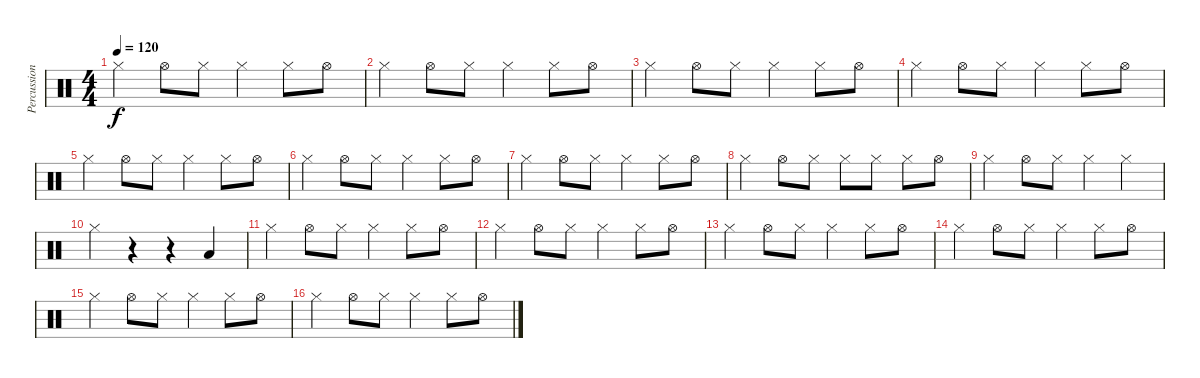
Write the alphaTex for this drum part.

\track ("Percussion" "Percussion") {instrument percussion}
\staff {score}
\articulation defaults
\ts (4 4)
\tempo 120
\clef neutral
\ks aminor "Hi-Hat (closed)".4{dy f} "Hi-Hat (open)".8 "Hi-Hat (closed)".8 "Hi-Hat (closed)".4 "Hi-Hat (closed)".8 "Hi-Hat (open)".8
|
"Hi-Hat (closed)".4 "Hi-Hat (open)".8 "Hi-Hat (closed)".8 "Hi-Hat (closed)".4 "Hi-Hat (closed)".8 "Hi-Hat (open)".8 |
"Hi-Hat (closed)".4 "Hi-Hat (open)".8 "Hi-Hat (closed)".8 "Hi-Hat (closed)".4 "Hi-Hat (closed)".8 "Hi-Hat (open)".8 |
"Hi-Hat (closed)".4 "Hi-Hat (open)".8 "Hi-Hat (closed)".8 "Hi-Hat (closed)".4 "Hi-Hat (closed)".8 "Hi-Hat (open)".8 |
"Hi-Hat (closed)".4 "Hi-Hat (open)".8 "Hi-Hat (closed)".8 "Hi-Hat (closed)".4 "Hi-Hat (closed)".8 "Hi-Hat (open)".8 |
"Hi-Hat (closed)".4 "Hi-Hat (open)".8 "Hi-Hat (closed)".8 "Hi-Hat (closed)".4 "Hi-Hat (closed)".8 "Hi-Hat (open)".8 |
"Hi-Hat (closed)".4 "Hi-Hat (open)".8 "Hi-Hat (closed)".8 "Hi-Hat (closed)".4 "Hi-Hat (closed)".8 "Hi-Hat (open)".8 |
"Hi-Hat (closed)".4 "Hi-Hat (open)".8 "Hi-Hat (closed)".8 "Hi-Hat (closed)".8 "Hi-Hat (closed)".8 "Hi-Hat (closed)".8 "Hi-Hat (open)".8 |
"Hi-Hat (closed)".4 "Hi-Hat (open)".8 "Hi-Hat (closed)".8 "Hi-Hat (closed)".4 "Hi-Hat (closed)".4 |
"Hi-Hat (closed)".4 r.4 r.4 "Low Floor Tom (hit)".4 |
"Hi-Hat (closed)".4 "Hi-Hat (open)".8 "Hi-Hat (closed)".8 "Hi-Hat (closed)".4 "Hi-Hat (closed)".8 "Hi-Hat (open)".8 |
"Hi-Hat (closed)".4 "Hi-Hat (open)".8 "Hi-Hat (closed)".8 "Hi-Hat (closed)".4 "Hi-Hat (closed)".8 "Hi-Hat (open)".8 |
"Hi-Hat (closed)".4 "Hi-Hat (open)".8 "Hi-Hat (closed)".8 "Hi-Hat (closed)".4 "Hi-Hat (closed)".8 "Hi-Hat (open)".8 |
"Hi-Hat (closed)".4 "Hi-Hat (open)".8 "Hi-Hat (closed)".8 "Hi-Hat (closed)".4 "Hi-Hat (closed)".8 "Hi-Hat (open)".8 |
"Hi-Hat (closed)".4 "Hi-Hat (open)".8 "Hi-Hat (closed)".8 "Hi-Hat (closed)".4 "Hi-Hat (closed)".8 "Hi-Hat (open)".8 |
"Hi-Hat (closed)".4 "Hi-Hat (open)".8 "Hi-Hat (closed)".8 "Hi-Hat (closed)".4 "Hi-Hat (closed)".8 "Hi-Hat (open)".8
